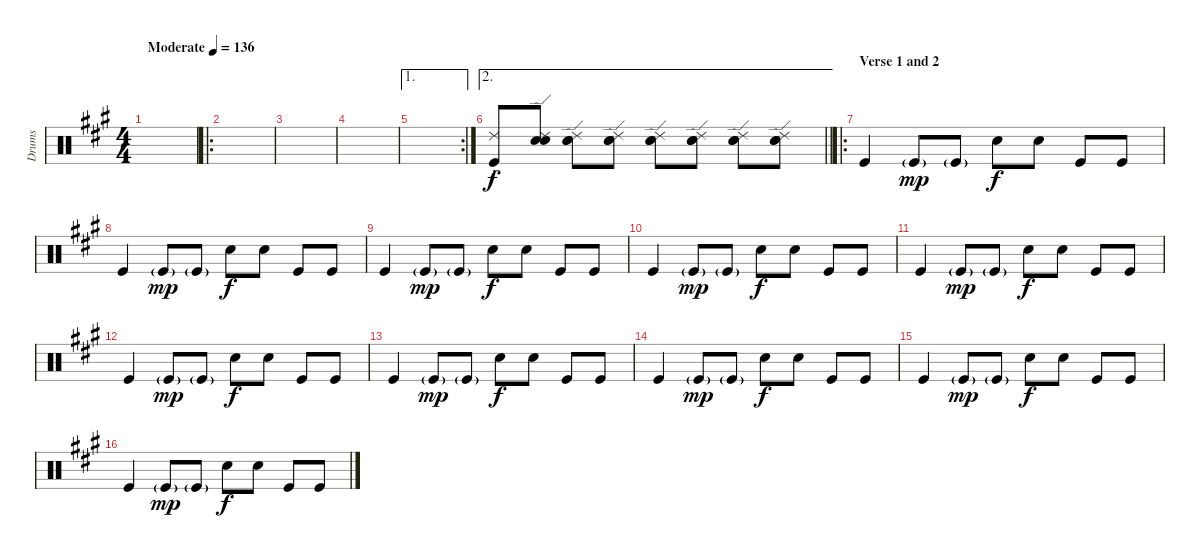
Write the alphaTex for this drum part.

\track ("Drums" "Drums") {instrument percussion}
\staff {score}
\articulation defaults
\ts (4 4)
\tempo (136 "Moderate")
\clef neutral
\ks a
|
\ro
|
|
|
\ae 1
\rc 2
|
\ae 2
\barLineRight lightlight
("Ride (choke) 2" "Kick (hit)").8 ("Ride (edge) 2" "Snare (hit) 2" "Electric Snare (hit)").8 ("Ride (edge) 2" "Snare (hit) 2" "Electric Snare (hit)").8 ("Ride (edge) 2" "Snare (hit) 2" "Electric Snare (hit)").8 ("Ride (edge) 2" "Snare (hit) 2" "Electric Snare (hit)").8 ("Ride (edge) 2" "Snare (hit) 2" "Electric Snare (hit)").8 ("Ride (edge) 2" "Snare (hit) 2" "Electric Snare (hit)").8 ("Ride (edge) 2" "Snare (hit) 2" "Electric Snare (hit)").8 |
\ro
\section ("" "Verse 1 and 2")
"Kick (hit)".4 "Kick (hit)"{g}.8{dy mp} "Kick (hit)"{g}.8 "Electric Snare (hit)".8{dy f} "Electric Snare (hit)".8 "Kick (hit)".8 "Kick (hit)".8 |
"Kick (hit)".4 "Kick (hit)"{g}.8{dy mp} "Kick (hit)"{g}.8 "Electric Snare (hit)".8{dy f} "Electric Snare (hit)".8 "Kick (hit)".8 "Kick (hit)".8 |
"Kick (hit)".4 "Kick (hit)"{g}.8{dy mp} "Kick (hit)"{g}.8 "Electric Snare (hit)".8{dy f} "Electric Snare (hit)".8 "Kick (hit)".8 "Kick (hit)".8 |
"Kick (hit)".4 "Kick (hit)"{g}.8{dy mp} "Kick (hit)"{g}.8 "Electric Snare (hit)".8{dy f} "Electric Snare (hit)".8 "Kick (hit)".8 "Kick (hit)".8 |
"Kick (hit)".4 "Kick (hit)"{g}.8{dy mp} "Kick (hit)"{g}.8 "Electric Snare (hit)".8{dy f} "Electric Snare (hit)".8 "Kick (hit)".8 "Kick (hit)".8 |
"Kick (hit)".4 "Kick (hit)"{g}.8{dy mp} "Kick (hit)"{g}.8 "Electric Snare (hit)".8{dy f} "Electric Snare (hit)".8 "Kick (hit)".8 "Kick (hit)".8 |
"Kick (hit)".4 "Kick (hit)"{g}.8{dy mp} "Kick (hit)"{g}.8 "Electric Snare (hit)".8{dy f} "Electric Snare (hit)".8 "Kick (hit)".8 "Kick (hit)".8 |
"Kick (hit)".4 "Kick (hit)"{g}.8{dy mp} "Kick (hit)"{g}.8 "Electric Snare (hit)".8{dy f} "Electric Snare (hit)".8 "Kick (hit)".8 "Kick (hit)".8 |
"Kick (hit)".4 "Kick (hit)"{g}.8{dy mp} "Kick (hit)"{g}.8 "Electric Snare (hit)".8{dy f} "Electric Snare (hit)".8 "Kick (hit)".8 "Kick (hit)".8 |
"Kick (hit)".4 "Kick (hit)"{g}.8{dy mp} "Kick (hit)"{g}.8 "Electric Snare (hit)".8{dy f} "Electric Snare (hit)".8 "Kick (hit)".8 "Kick (hit)".8
